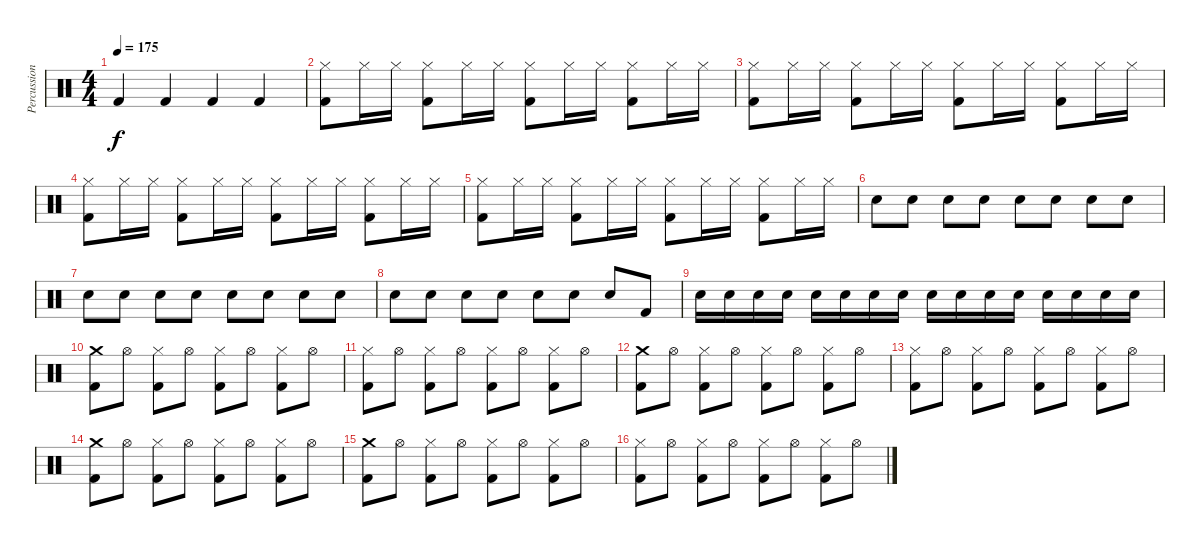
\track ("Percussions" "Percussion") {instrument percussion}
\staff {score}
\articulation defaults
\ts (4 4)
\tempo 175
\clef neutral
\ks c "Kick (hit) 2".4{dy f} "Kick (hit) 2".4 "Kick (hit) 2".4 "Kick (hit) 2".4
|
("Hi-Hat (closed)" "Kick (hit) 2").8 "Hi-Hat (closed)".16 "Hi-Hat (closed)".16 ("Hi-Hat (closed)" "Kick (hit) 2").8 "Hi-Hat (closed)".16 "Hi-Hat (closed)".16 ("Hi-Hat (closed)" "Kick (hit) 2").8 "Hi-Hat (closed)".16 "Hi-Hat (closed)".16 ("Hi-Hat (closed)" "Kick (hit) 2").8 "Hi-Hat (closed)".16 "Hi-Hat (closed)".16 |
("Hi-Hat (closed)" "Kick (hit) 2").8 "Hi-Hat (closed)".16 "Hi-Hat (closed)".16 ("Hi-Hat (closed)" "Kick (hit) 2").8 "Hi-Hat (closed)".16 "Hi-Hat (closed)".16 ("Hi-Hat (closed)" "Kick (hit) 2").8 "Hi-Hat (closed)".16 "Hi-Hat (closed)".16 ("Hi-Hat (closed)" "Kick (hit) 2").8 "Hi-Hat (closed)".16 "Hi-Hat (closed)".16 |
("Hi-Hat (closed)" "Kick (hit) 2").8 "Hi-Hat (closed)".16 "Hi-Hat (closed)".16 ("Hi-Hat (closed)" "Kick (hit) 2").8 "Hi-Hat (closed)".16 "Hi-Hat (closed)".16 ("Hi-Hat (closed)" "Kick (hit) 2").8 "Hi-Hat (closed)".16 "Hi-Hat (closed)".16 ("Hi-Hat (closed)" "Kick (hit) 2").8 "Hi-Hat (closed)".16 "Hi-Hat (closed)".16 |
("Hi-Hat (closed)" "Kick (hit) 2").8 "Hi-Hat (closed)".16 "Hi-Hat (closed)".16 ("Hi-Hat (closed)" "Kick (hit) 2").8 "Hi-Hat (closed)".16 "Hi-Hat (closed)".16 ("Hi-Hat (closed)" "Kick (hit) 2").8 "Hi-Hat (closed)".16 "Hi-Hat (closed)".16 ("Hi-Hat (closed)" "Kick (hit) 2").8 "Hi-Hat (closed)".16 "Hi-Hat (closed)".16 |
"Snare (hit) 2".8 "Snare (hit) 2".8 "Snare (hit) 2".8 "Snare (hit) 2".8 "Snare (hit) 2".8 "Snare (hit) 2".8 "Snare (hit) 2".8 "Snare (hit) 2".8 |
"Snare (hit) 2".8 "Snare (hit) 2".8 "Snare (hit) 2".8 "Snare (hit) 2".8 "Snare (hit) 2".8 "Snare (hit) 2".8 "Snare (hit) 2".8 "Snare (hit) 2".8 |
"Snare (hit) 2".8 "Snare (hit) 2".8 "Snare (hit) 2".8 "Snare (hit) 2".8 "Snare (hit) 2".8 "Snare (hit) 2".8 "Snare (hit) 2".8 "Kick (hit) 2".8 |
"Snare (hit) 2".16 "Snare (hit) 2".16 "Snare (hit) 2".16 "Snare (hit) 2".16 "Snare (hit) 2".16 "Snare (hit) 2".16 "Snare (hit) 2".16 "Snare (hit) 2".16 "Snare (hit) 2".16 "Snare (hit) 2".16 "Snare (hit) 2".16 "Snare (hit) 2".16 "Snare (hit) 2".16 "Snare (hit) 2".16 "Snare (hit) 2".16 "Snare (hit) 2".16 |
("Crash medium (hit)" "Kick (hit) 2").8 "Hi-Hat (open)".8 ("Hi-Hat (closed)" "Kick (hit) 2").8 "Hi-Hat (open)".8 ("Hi-Hat (closed)" "Kick (hit) 2").8 "Hi-Hat (open)".8 ("Hi-Hat (closed)" "Kick (hit) 2").8 "Hi-Hat (open)".8 |
("Hi-Hat (closed)" "Kick (hit) 2").8 "Hi-Hat (open)".8 ("Hi-Hat (closed)" "Kick (hit) 2").8 "Hi-Hat (open)".8 ("Hi-Hat (closed)" "Kick (hit) 2").8 "Hi-Hat (open)".8 ("Hi-Hat (closed)" "Kick (hit) 2").8 "Hi-Hat (open)".8 |
("Crash medium (hit)" "Kick (hit) 2").8 "Hi-Hat (open)".8 ("Hi-Hat (closed)" "Kick (hit) 2").8 "Hi-Hat (open)".8 ("Hi-Hat (closed)" "Kick (hit) 2").8 "Hi-Hat (open)".8 ("Hi-Hat (closed)" "Kick (hit) 2").8 "Hi-Hat (open)".8 |
("Hi-Hat (closed)" "Kick (hit) 2").8 "Hi-Hat (open)".8 ("Hi-Hat (closed)" "Kick (hit) 2").8 "Hi-Hat (open)".8 ("Hi-Hat (closed)" "Kick (hit) 2").8 "Hi-Hat (open)".8 ("Hi-Hat (closed)" "Kick (hit) 2").8 "Hi-Hat (open)".8 |
("Crash medium (hit)" "Kick (hit) 2").8 "Hi-Hat (open)".8 ("Hi-Hat (closed)" "Kick (hit) 2").8 "Hi-Hat (open)".8 ("Hi-Hat (closed)" "Kick (hit) 2").8 "Hi-Hat (open)".8 ("Hi-Hat (closed)" "Kick (hit) 2").8 "Hi-Hat (open)".8 |
("Crash medium (hit)" "Kick (hit) 2").8 "Hi-Hat (open)".8 ("Hi-Hat (closed)" "Kick (hit) 2").8 "Hi-Hat (open)".8 ("Hi-Hat (closed)" "Kick (hit) 2").8 "Hi-Hat (open)".8 ("Hi-Hat (closed)" "Kick (hit) 2").8 "Hi-Hat (open)".8 |
("Hi-Hat (closed)" "Kick (hit) 2").8 "Hi-Hat (open)".8 ("Hi-Hat (closed)" "Kick (hit) 2").8 "Hi-Hat (open)".8 ("Hi-Hat (closed)" "Kick (hit) 2").8 "Hi-Hat (open)".8 ("Hi-Hat (closed)" "Kick (hit) 2").8 "Hi-Hat (open)".8
